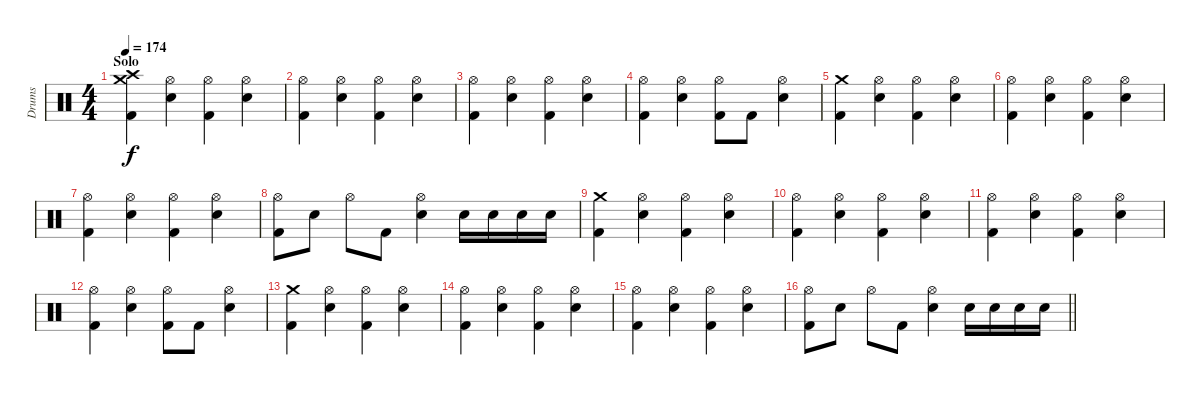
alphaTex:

\track ("Drums" "Drums") {instrument percussion}
\staff {score}
\articulation defaults
\ts (4 4)
\section ("" "Solo")
\tempo 174
\clef neutral
\ks c
("Crash medium (hit)" "Crash high (hit)" "Kick (hit) 2").4{dy f} ("Hi-Hat (open)" "Electric Snare (hit)").4 ("Hi-Hat (open)" "Kick (hit) 2").4 ("Hi-Hat (open)" "Electric Snare (hit)").4 |
("Hi-Hat (open)" "Kick (hit) 2").4 ("Hi-Hat (open)" "Electric Snare (hit)").4 ("Hi-Hat (open)" "Kick (hit) 2").4 ("Hi-Hat (open)" "Electric Snare (hit)").4 |
("Hi-Hat (open)" "Kick (hit) 2").4 ("Hi-Hat (open)" "Electric Snare (hit)").4 ("Hi-Hat (open)" "Kick (hit) 2").4 ("Hi-Hat (open)" "Electric Snare (hit)").4 |
("Hi-Hat (open)" "Kick (hit) 2").4 ("Hi-Hat (open)" "Electric Snare (hit)").4 ("Hi-Hat (open)" "Kick (hit) 2").8 "Kick (hit) 2".8 ("Hi-Hat (open)" "Electric Snare (hit)").4 |
("Crash medium (hit)" "Kick (hit) 2").4 ("Hi-Hat (open)" "Electric Snare (hit)").4 ("Hi-Hat (open)" "Kick (hit) 2").4 ("Hi-Hat (open)" "Electric Snare (hit)").4 |
("Hi-Hat (open)" "Kick (hit) 2").4 ("Hi-Hat (open)" "Electric Snare (hit)").4 ("Hi-Hat (open)" "Kick (hit) 2").4 ("Hi-Hat (open)" "Electric Snare (hit)").4 |
("Hi-Hat (open)" "Kick (hit) 2").4 ("Hi-Hat (open)" "Electric Snare (hit)").4 ("Hi-Hat (open)" "Kick (hit) 2").4 ("Hi-Hat (open)" "Electric Snare (hit)").4 |
("Hi-Hat (open)" "Kick (hit) 2").8 "Electric Snare (hit)".8 "Hi-Hat (open)".8 "Kick (hit) 2".8 ("Hi-Hat (open)" "Electric Snare (hit)").4 "Electric Snare (hit)".16 "Electric Snare (hit)".16 "Electric Snare (hit)".16 "Electric Snare (hit)".16 |
("Crash medium (hit)" "Kick (hit) 2").4 ("Hi-Hat (open)" "Electric Snare (hit)").4 ("Hi-Hat (open)" "Kick (hit) 2").4 ("Hi-Hat (open)" "Electric Snare (hit)").4 |
("Hi-Hat (open)" "Kick (hit) 2").4 ("Hi-Hat (open)" "Electric Snare (hit)").4 ("Hi-Hat (open)" "Kick (hit) 2").4 ("Hi-Hat (open)" "Electric Snare (hit)").4 |
("Hi-Hat (open)" "Kick (hit) 2").4 ("Hi-Hat (open)" "Electric Snare (hit)").4 ("Hi-Hat (open)" "Kick (hit) 2").4 ("Hi-Hat (open)" "Electric Snare (hit)").4 |
("Hi-Hat (open)" "Kick (hit) 2").4 ("Hi-Hat (open)" "Electric Snare (hit)").4 ("Hi-Hat (open)" "Kick (hit) 2").8 "Kick (hit) 2".8 ("Hi-Hat (open)" "Electric Snare (hit)").4 |
("Crash medium (hit)" "Kick (hit) 2").4 ("Hi-Hat (open)" "Electric Snare (hit)").4 ("Hi-Hat (open)" "Kick (hit) 2").4 ("Hi-Hat (open)" "Electric Snare (hit)").4 |
("Hi-Hat (open)" "Kick (hit) 2").4 ("Hi-Hat (open)" "Electric Snare (hit)").4 ("Hi-Hat (open)" "Kick (hit) 2").4 ("Hi-Hat (open)" "Electric Snare (hit)").4 |
("Hi-Hat (open)" "Kick (hit) 2").4 ("Hi-Hat (open)" "Electric Snare (hit)").4 ("Hi-Hat (open)" "Kick (hit) 2").4 ("Hi-Hat (open)" "Electric Snare (hit)").4 |
\barLineRight lightlight
("Hi-Hat (open)" "Kick (hit) 2").8 "Electric Snare (hit)".8 "Hi-Hat (open)".8 "Kick (hit) 2".8 ("Hi-Hat (open)" "Electric Snare (hit)").4 "Electric Snare (hit)".16 "Electric Snare (hit)".16 "Electric Snare (hit)".16 "Electric Snare (hit)".16
